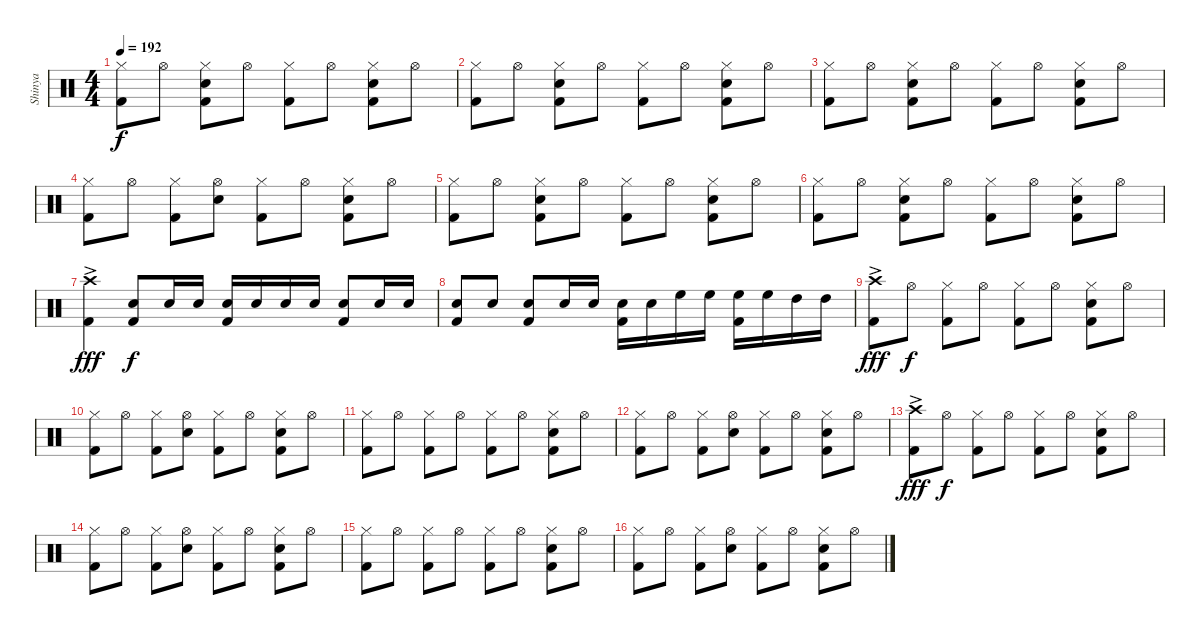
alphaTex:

\track ("Shinya" "Shinya") {instrument percussion}
\staff {score}
\articulation defaults
\ts (4 4)
\tempo 192
\clef neutral
\ks c
("Hi-Hat (closed)" "Kick (hit) 2").8{dy f} "Hi-Hat (open)".8 ("Hi-Hat (closed)" "Snare (hit) 2" "Kick (hit) 2").8 "Hi-Hat (open)".8 ("Hi-Hat (closed)" "Kick (hit) 2").8 "Hi-Hat (open)".8 ("Hi-Hat (closed)" "Snare (hit) 2" "Kick (hit) 2").8 "Hi-Hat (open)".8 |
("Hi-Hat (closed)" "Kick (hit) 2").8 "Hi-Hat (open)".8 ("Hi-Hat (closed)" "Snare (hit) 2" "Kick (hit) 2").8 "Hi-Hat (open)".8 ("Hi-Hat (closed)" "Kick (hit) 2").8 "Hi-Hat (open)".8 ("Hi-Hat (closed)" "Snare (hit) 2" "Kick (hit) 2").8 "Hi-Hat (open)".8 |
("Hi-Hat (closed)" "Kick (hit) 2").8 "Hi-Hat (open)".8 ("Hi-Hat (closed)" "Snare (hit) 2" "Kick (hit) 2").8 "Hi-Hat (open)".8 ("Hi-Hat (closed)" "Kick (hit) 2").8 "Hi-Hat (open)".8 ("Hi-Hat (closed)" "Snare (hit) 2" "Kick (hit) 2").8 "Hi-Hat (open)".8 |
("Hi-Hat (closed)" "Kick (hit) 2").8 "Hi-Hat (open)".8 ("Hi-Hat (closed)" "Kick (hit) 2").8 ("Hi-Hat (open)" "Snare (hit) 2").8 ("Hi-Hat (closed)" "Kick (hit) 2").8 "Hi-Hat (open)".8 ("Hi-Hat (closed)" "Snare (hit) 2" "Kick (hit) 2").8 "Hi-Hat (open)".8 |
("Hi-Hat (closed)" "Kick (hit) 2").8 "Hi-Hat (open)".8 ("Hi-Hat (closed)" "Snare (hit) 2" "Kick (hit) 2").8 "Hi-Hat (open)".8 ("Hi-Hat (closed)" "Kick (hit) 2").8 "Hi-Hat (open)".8 ("Hi-Hat (closed)" "Snare (hit) 2" "Kick (hit) 2").8 "Hi-Hat (open)".8 |
("Hi-Hat (closed)" "Kick (hit) 2").8 "Hi-Hat (open)".8 ("Hi-Hat (closed)" "Snare (hit) 2" "Kick (hit) 2").8 "Hi-Hat (open)".8 ("Hi-Hat (closed)" "Kick (hit) 2").8 "Hi-Hat (open)".8 ("Hi-Hat (closed)" "Snare (hit) 2" "Kick (hit) 2").8 "Hi-Hat (open)".8 |
("Crash high (hit)"{ac} "Kick (hit) 2").4{dy fff} ("Snare (hit) 2" "Kick (hit) 2").8{dy f} "Snare (hit) 2".16 "Snare (hit) 2".16 ("Snare (hit) 2" "Kick (hit) 2").16 "Snare (hit) 2".16 "Snare (hit) 2".16 "Snare (hit) 2".16 ("Snare (hit) 2" "Kick (hit) 2").8 "Snare (hit) 2".16 "Snare (hit) 2".16 |
("Snare (hit) 2" "Kick (hit) 2").8 "Snare (hit) 2".8 ("Snare (hit) 2" "Kick (hit) 2").8 "Snare (hit) 2".16 "Snare (hit) 2".16 ("Snare (hit) 2" "Kick (hit) 2").16 "Snare (hit) 2".16 "High Floor Tom (hit)".16 "High Floor Tom (hit)".16 ("High Floor Tom (hit)" "Kick (hit) 2").16 "High Floor Tom (hit)".16 "High Tom (hit)".16 "High Tom (hit)".16 |
("Crash high (hit)"{ac} "Kick (hit) 2").8{dy fff} "Hi-Hat (open)".8{dy f} ("Hi-Hat (closed)" "Kick (hit) 2").8 "Hi-Hat (open)".8 ("Hi-Hat (closed)" "Kick (hit) 2").8 "Hi-Hat (open)".8 ("Hi-Hat (closed)" "Snare (hit) 2" "Kick (hit) 2").8 "Hi-Hat (open)".8 |
("Hi-Hat (closed)" "Kick (hit) 2").8 "Hi-Hat (open)".8 ("Hi-Hat (closed)" "Kick (hit) 2").8 ("Hi-Hat (open)" "Snare (hit) 2").8 ("Hi-Hat (closed)" "Kick (hit) 2").8 "Hi-Hat (open)".8 ("Hi-Hat (closed)" "Snare (hit) 2" "Kick (hit) 2").8 "Hi-Hat (open)".8 |
("Hi-Hat (closed)" "Kick (hit) 2").8 "Hi-Hat (open)".8 ("Hi-Hat (closed)" "Kick (hit) 2").8 "Hi-Hat (open)".8 ("Hi-Hat (closed)" "Kick (hit) 2").8 "Hi-Hat (open)".8 ("Hi-Hat (closed)" "Snare (hit) 2" "Kick (hit) 2").8 "Hi-Hat (open)".8 |
("Hi-Hat (closed)" "Kick (hit) 2").8 "Hi-Hat (open)".8 ("Hi-Hat (closed)" "Kick (hit) 2").8 ("Hi-Hat (open)" "Snare (hit) 2").8 ("Hi-Hat (closed)" "Kick (hit) 2").8 "Hi-Hat (open)".8 ("Hi-Hat (closed)" "Snare (hit) 2" "Kick (hit) 2").8 "Hi-Hat (open)".8 |
("Crash high (hit)"{ac} "Kick (hit) 2").8{dy fff} "Hi-Hat (open)".8{dy f} ("Hi-Hat (closed)" "Kick (hit) 2").8 "Hi-Hat (open)".8 ("Hi-Hat (closed)" "Kick (hit) 2").8 "Hi-Hat (open)".8 ("Hi-Hat (closed)" "Snare (hit) 2" "Kick (hit) 2").8 "Hi-Hat (open)".8 |
("Hi-Hat (closed)" "Kick (hit) 2").8 "Hi-Hat (open)".8 ("Hi-Hat (closed)" "Kick (hit) 2").8 ("Hi-Hat (open)" "Snare (hit) 2").8 ("Hi-Hat (closed)" "Kick (hit) 2").8 "Hi-Hat (open)".8 ("Hi-Hat (closed)" "Snare (hit) 2" "Kick (hit) 2").8 "Hi-Hat (open)".8 |
("Hi-Hat (closed)" "Kick (hit) 2").8 "Hi-Hat (open)".8 ("Hi-Hat (closed)" "Kick (hit) 2").8 "Hi-Hat (open)".8 ("Hi-Hat (closed)" "Kick (hit) 2").8 "Hi-Hat (open)".8 ("Hi-Hat (closed)" "Snare (hit) 2" "Kick (hit) 2").8 "Hi-Hat (open)".8 |
("Hi-Hat (closed)" "Kick (hit) 2").8 "Hi-Hat (open)".8 ("Hi-Hat (closed)" "Kick (hit) 2").8 ("Hi-Hat (open)" "Snare (hit) 2").8 ("Hi-Hat (closed)" "Kick (hit) 2").8 "Hi-Hat (open)".8 ("Hi-Hat (closed)" "Snare (hit) 2" "Kick (hit) 2").8 "Hi-Hat (open)".8
